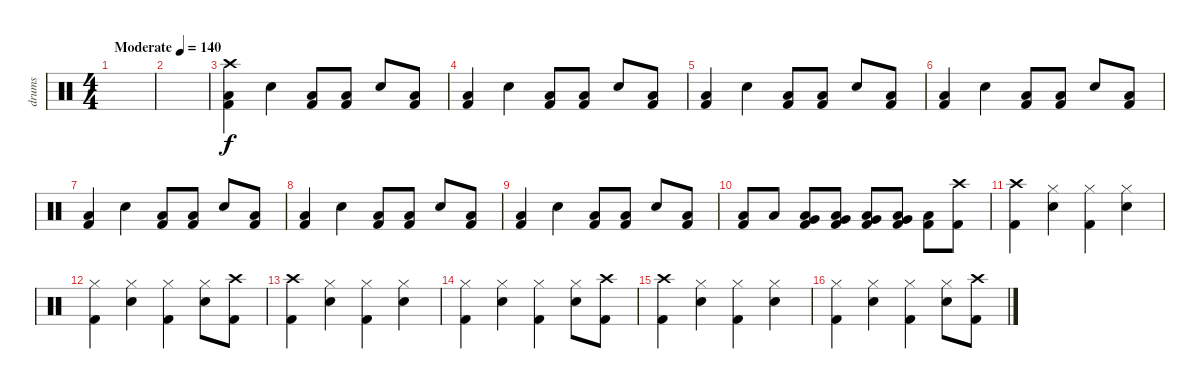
\track ("drums" "drums") {instrument percussion}
\staff {score}
\articulation defaults
\ts (4 4)
\tempo (140 "Moderate")
\clef neutral
\ks c
|
|
("Crash high (hit)" "Low Floor Tom (hit)" "Kick (hit) 2").4 "Electric Snare (hit)".4 ("Low Floor Tom (hit)" "Kick (hit) 2").8 ("Low Floor Tom (hit)" "Kick (hit) 2").8 "Electric Snare (hit)".8 ("Low Floor Tom (hit)" "Kick (hit) 2").8 |
("Low Floor Tom (hit)" "Kick (hit) 2").4 "Electric Snare (hit)".4 ("Low Floor Tom (hit)" "Kick (hit) 2").8 ("Low Floor Tom (hit)" "Kick (hit) 2").8 "Electric Snare (hit)".8 ("Low Floor Tom (hit)" "Kick (hit) 2").8 |
("Low Floor Tom (hit)" "Kick (hit) 2").4 "Electric Snare (hit)".4 ("Low Floor Tom (hit)" "Kick (hit) 2").8 ("Low Floor Tom (hit)" "Kick (hit) 2").8 "Electric Snare (hit)".8 ("Low Floor Tom (hit)" "Kick (hit) 2").8 |
("Low Floor Tom (hit)" "Kick (hit) 2").4 "Electric Snare (hit)".4 ("Low Floor Tom (hit)" "Kick (hit) 2").8 ("Low Floor Tom (hit)" "Kick (hit) 2").8 "Electric Snare (hit)".8 ("Low Floor Tom (hit)" "Kick (hit) 2").8 |
("Low Floor Tom (hit)" "Kick (hit) 2").4 "Electric Snare (hit)".4 ("Low Floor Tom (hit)" "Kick (hit) 2").8 ("Low Floor Tom (hit)" "Kick (hit) 2").8 "Electric Snare (hit)".8 ("Low Floor Tom (hit)" "Kick (hit) 2").8 |
("Low Floor Tom (hit)" "Kick (hit) 2").4 "Electric Snare (hit)".4 ("Low Floor Tom (hit)" "Kick (hit) 2").8 ("Low Floor Tom (hit)" "Kick (hit) 2").8 "Electric Snare (hit)".8 ("Low Floor Tom (hit)" "Kick (hit) 2").8 |
("Low Floor Tom (hit)" "Kick (hit) 2").4 "Electric Snare (hit)".4 ("Low Floor Tom (hit)" "Kick (hit) 2").8 ("Low Floor Tom (hit)" "Kick (hit) 2").8 "Electric Snare (hit)".8 ("Low Floor Tom (hit)" "Kick (hit) 2").8 |
("Low Floor Tom (hit)" "Kick (hit) 2").8 "Low Floor Tom (hit)".8 ("Very Low Tom (hit)" "Low Floor Tom (hit)" "Kick (hit) 2").8 ("Very Low Tom (hit)" "Low Floor Tom (hit)" "Kick (hit) 2").8 ("Very Low Tom (hit)" "Low Floor Tom (hit)" "Kick (hit) 2").8 ("Very Low Tom (hit)" "Low Floor Tom (hit)" "Kick (hit) 2").8 ("Low Floor Tom (hit)" "Kick (hit) 2").8 ("Crash high (hit)" "Kick (hit) 2").8 |
("Crash high (hit)" "Kick (hit) 2").4 ("Hi-Hat (closed)" "Electric Snare (hit)").4 ("Hi-Hat (closed)" "Kick (hit) 2").4 ("Hi-Hat (closed)" "Electric Snare (hit)").4 |
("Hi-Hat (closed)" "Kick (hit) 2").4 ("Hi-Hat (closed)" "Electric Snare (hit)").4 ("Hi-Hat (closed)" "Kick (hit) 2").4 ("Hi-Hat (closed)" "Electric Snare (hit)").8 ("Crash high (hit)" "Kick (hit) 2").8 |
("Crash high (hit)" "Kick (hit) 2").4 ("Hi-Hat (closed)" "Electric Snare (hit)").4 ("Hi-Hat (closed)" "Kick (hit) 2").4 ("Hi-Hat (closed)" "Electric Snare (hit)").4 |
("Hi-Hat (closed)" "Kick (hit) 2").4 ("Hi-Hat (closed)" "Electric Snare (hit)").4 ("Hi-Hat (closed)" "Kick (hit) 2").4 ("Hi-Hat (closed)" "Electric Snare (hit)").8 ("Crash high (hit)" "Kick (hit) 2").8 |
("Crash high (hit)" "Kick (hit) 2").4 ("Hi-Hat (closed)" "Electric Snare (hit)").4 ("Hi-Hat (closed)" "Kick (hit) 2").4 ("Hi-Hat (closed)" "Electric Snare (hit)").4 |
("Hi-Hat (closed)" "Kick (hit) 2").4 ("Hi-Hat (closed)" "Electric Snare (hit)").4 ("Hi-Hat (closed)" "Kick (hit) 2").4 ("Hi-Hat (closed)" "Electric Snare (hit)").8 ("Crash high (hit)" "Kick (hit) 2").8
